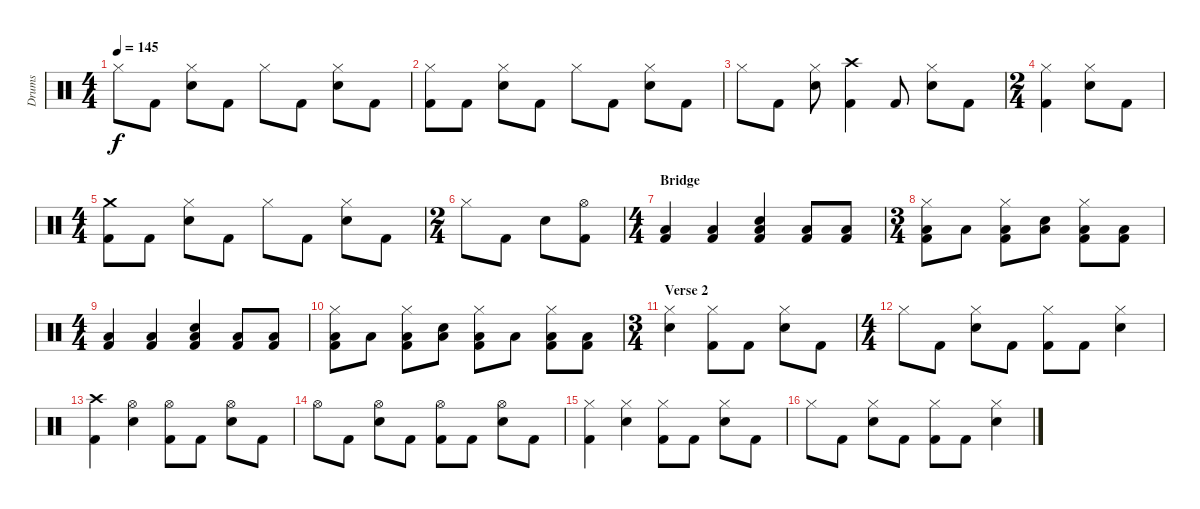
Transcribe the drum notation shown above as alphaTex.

\track ("Drums" "Drums") {instrument percussion}
\staff {score}
\articulation defaults
\ts (4 4)
\tempo 145
\clef neutral
\ks c "Hi-Hat (closed)".8{dy f} "Kick (hit) 2".8
("Hi-Hat (closed)" "Snare (hit) 2").8 "Kick (hit) 2".8 "Hi-Hat (closed)".8 "Kick (hit) 2".8 ("Hi-Hat (closed)" "Snare (hit) 2").8 "Kick (hit) 2".8 |
("Hi-Hat (closed)" "Kick (hit) 2").8 "Kick (hit) 2".8 ("Hi-Hat (closed)" "Snare (hit) 2").8 "Kick (hit) 2".8 "Hi-Hat (closed)".8 "Kick (hit) 2".8 ("Hi-Hat (closed)" "Snare (hit) 2").8 "Kick (hit) 2".8 |
"Hi-Hat (closed)".8 "Kick (hit) 2".8 ("Hi-Hat (closed)" "Snare (hit) 2").8 ("Crash high (hit)" "Kick (hit) 2").4 "Kick (hit) 2".8 ("Hi-Hat (closed)" "Snare (hit) 2").8 "Kick (hit) 2".8 |
\ts (2 4)
("Hi-Hat (closed)" "Kick (hit) 2").4 ("Hi-Hat (closed)" "Snare (hit) 2").8 "Kick (hit) 2".8 |
\ts (4 4)
("Crash medium (hit)" "Kick (hit) 2").8 "Kick (hit) 2".8 ("Hi-Hat (closed)" "Snare (hit) 2").8 "Kick (hit) 2".8 "Hi-Hat (closed)".8 "Kick (hit) 2".8 ("Hi-Hat (closed)" "Snare (hit) 2").8 "Kick (hit) 2".8 |
\ts (2 4)
"Hi-Hat (closed)".8 "Kick (hit) 2".8 "Snare (hit) 2".8 ("Hi-Hat (open)" "Kick (hit) 2").8 |
\ts (4 4)
\section ("" "Bridge")
("Low Floor Tom (hit)" "Kick (hit) 2").4 ("Low Floor Tom (hit)" "Kick (hit) 2").4 ("Snare (hit) 2" "Low Floor Tom (hit)" "Kick (hit) 2").4 ("Low Floor Tom (hit)" "Kick (hit) 2").8 ("Low Floor Tom (hit)" "Kick (hit) 2").8 |
\ts (3 4)
("Hi-Hat (closed)" "Low Floor Tom (hit)" "Kick (hit) 2").8 "Low Floor Tom (hit)".8 ("Hi-Hat (closed)" "Low Floor Tom (hit)" "Kick (hit) 2").8 ("Snare (hit) 2" "Low Floor Tom (hit)").8 ("Hi-Hat (closed)" "Low Floor Tom (hit)" "Kick (hit) 2").8 ("Low Floor Tom (hit)" "Kick (hit) 2").8 |
\ts (4 4)
("Low Floor Tom (hit)" "Kick (hit) 2").4 ("Low Floor Tom (hit)" "Kick (hit) 2").4 ("Snare (hit) 2" "Low Floor Tom (hit)" "Kick (hit) 2").4 ("Low Floor Tom (hit)" "Kick (hit) 2").8 ("Low Floor Tom (hit)" "Kick (hit) 2").8 |
("Hi-Hat (closed)" "Low Floor Tom (hit)" "Kick (hit) 2").8 "Low Floor Tom (hit)".8 ("Hi-Hat (closed)" "Low Floor Tom (hit)" "Kick (hit) 2").8 ("Snare (hit) 2" "Low Floor Tom (hit)").8 ("Hi-Hat (closed)" "Low Floor Tom (hit)" "Kick (hit) 2").8 "Low Floor Tom (hit)".8 ("Hi-Hat (closed)" "Low Floor Tom (hit)" "Kick (hit) 2").8 ("Low Floor Tom (hit)" "Kick (hit) 2").8 |
\ts (3 4)
\section ("" "Verse 2")
("Hi-Hat (closed)" "Snare (hit) 2").4 ("Hi-Hat (closed)" "Kick (hit) 2").8 "Kick (hit) 2".8 ("Hi-Hat (closed)" "Snare (hit) 2").8 "Kick (hit) 2".8 |
\ts (4 4)
"Hi-Hat (closed)".8 "Kick (hit) 2".8 ("Hi-Hat (closed)" "Snare (hit) 2").8 "Kick (hit) 2".8 ("Hi-Hat (closed)" "Kick (hit) 2").8 "Kick (hit) 2".8 ("Hi-Hat (closed)" "Snare (hit) 2").4 |
("Crash high (hit)" "Kick (hit) 2").4 ("Hi-Hat (open)" "Snare (hit) 2").4 ("Hi-Hat (open)" "Kick (hit) 2").8 "Kick (hit) 2".8 ("Hi-Hat (open)" "Snare (hit) 2").8 "Kick (hit) 2".8 |
"Hi-Hat (open)".8 "Kick (hit) 2".8 ("Hi-Hat (open)" "Snare (hit) 2").8 "Kick (hit) 2".8 ("Hi-Hat (open)" "Kick (hit) 2").8 "Kick (hit) 2".8 ("Hi-Hat (open)" "Snare (hit) 2").8 "Kick (hit) 2".8 |
("Hi-Hat (closed)" "Kick (hit) 2").4 ("Hi-Hat (closed)" "Snare (hit) 2").4 ("Hi-Hat (closed)" "Kick (hit) 2").8 "Kick (hit) 2".8 ("Hi-Hat (closed)" "Snare (hit) 2").8 "Kick (hit) 2".8 |
"Hi-Hat (closed)".8 "Kick (hit) 2".8 ("Hi-Hat (closed)" "Snare (hit) 2").8 "Kick (hit) 2".8 ("Hi-Hat (closed)" "Kick (hit) 2").8 "Kick (hit) 2".8 ("Hi-Hat (closed)" "Snare (hit) 2").4
